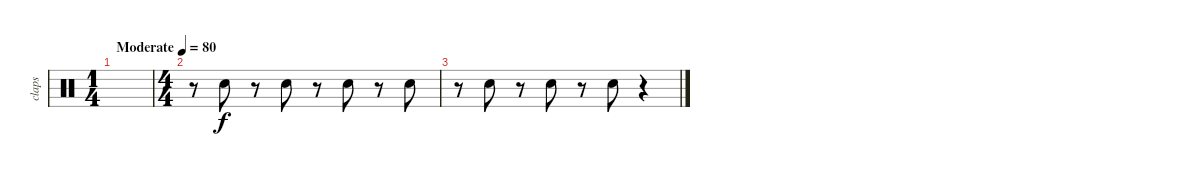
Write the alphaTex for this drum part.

\track ("claps" "claps") {instrument percussion}
\staff {score}
\articulation defaults
\ts (1 4)
\tempo (80 "Moderate")
\clef neutral
\ks c
|
\ts (4 4)
r.8 "Hand Clap (hit)".8 r.8 "Hand Clap (hit)".8 r.8 "Hand Clap (hit)".8 r.8 "Hand Clap (hit)".8 |
r.8 "Hand Clap (hit)".8 r.8 "Hand Clap (hit)".8 r.8 "Hand Clap (hit)".8 r.4
